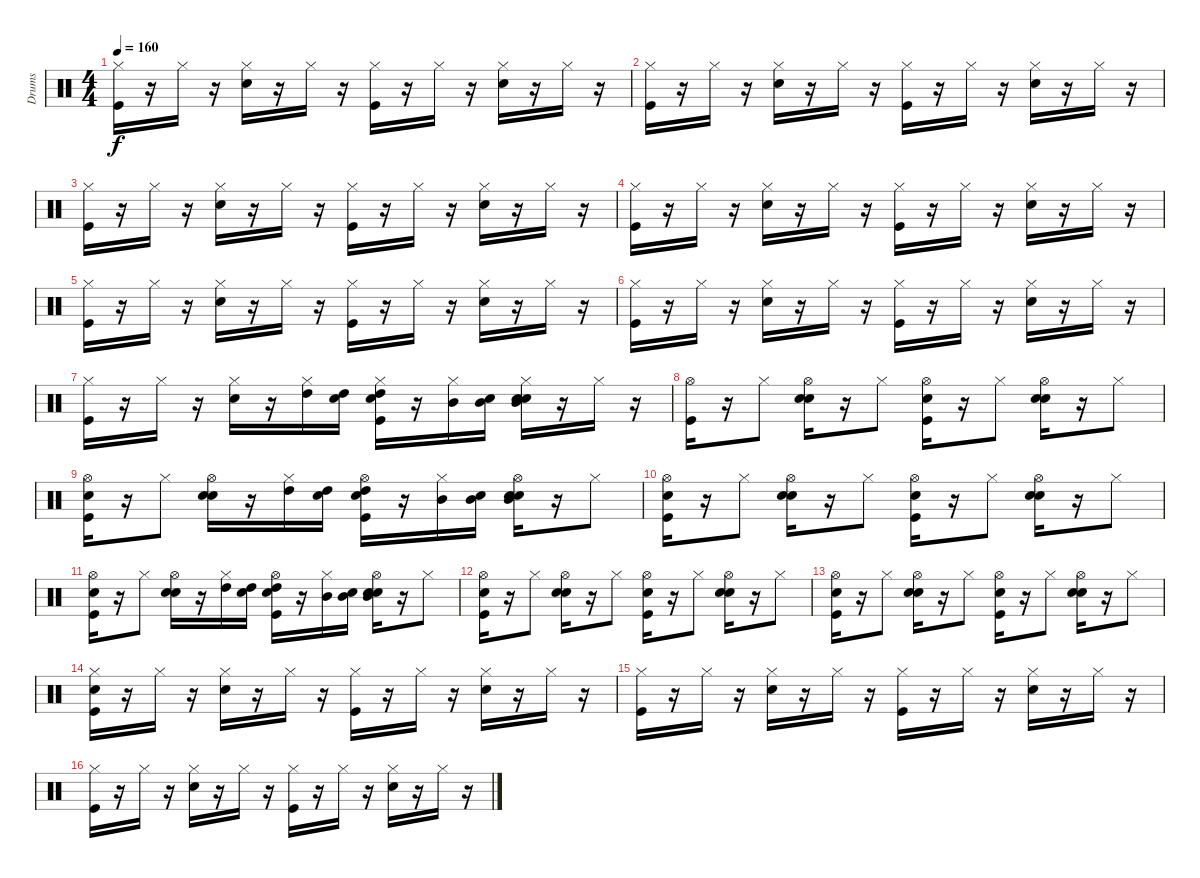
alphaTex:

\track ("Drums               " "Drums     ") {instrument percussion}
\staff {score}
\articulation defaults
\ts (4 4)
\tempo 160
\clef neutral
\ks c
("Kick (hit)" "Hi-Hat (closed)").16{dy f} r.16 "Hi-Hat (closed)".16 r.16 ("Snare (hit) 2" "Hi-Hat (closed)").16 r.16 "Hi-Hat (closed)".16 r.16 ("Kick (hit)" "Hi-Hat (closed)").16 r.16 "Hi-Hat (closed)".16 r.16 ("Snare (hit) 2" "Hi-Hat (closed)").16 r.16 "Hi-Hat (closed)".16 r.16 |
("Kick (hit)" "Hi-Hat (closed)").16 r.16 "Hi-Hat (closed)".16 r.16 ("Snare (hit) 2" "Hi-Hat (closed)").16 r.16 "Hi-Hat (closed)".16 r.16 ("Kick (hit)" "Hi-Hat (closed)").16 r.16 "Hi-Hat (closed)".16 r.16 ("Snare (hit) 2" "Hi-Hat (closed)").16 r.16 "Hi-Hat (closed)".16 r.16 |
("Kick (hit)" "Hi-Hat (closed)").16 r.16 "Hi-Hat (closed)".16 r.16 ("Snare (hit) 2" "Hi-Hat (closed)").16 r.16 "Hi-Hat (closed)".16 r.16 ("Kick (hit)" "Hi-Hat (closed)").16 r.16 "Hi-Hat (closed)".16 r.16 ("Snare (hit) 2" "Hi-Hat (closed)").16 r.16 "Hi-Hat (closed)".16 r.16 |
("Kick (hit)" "Hi-Hat (closed)").16 r.16 "Hi-Hat (closed)".16 r.16 ("Snare (hit) 2" "Hi-Hat (closed)").16 r.16 "Hi-Hat (closed)".16 r.16 ("Kick (hit)" "Hi-Hat (closed)").16 r.16 "Hi-Hat (closed)".16 r.16 ("Snare (hit) 2" "Hi-Hat (closed)").16 r.16 "Hi-Hat (closed)".16 r.16 |
("Kick (hit)" "Hi-Hat (closed)").16 r.16 "Hi-Hat (closed)".16 r.16 ("Snare (hit) 2" "Hi-Hat (closed)").16 r.16 "Hi-Hat (closed)".16 r.16 ("Kick (hit)" "Hi-Hat (closed)").16 r.16 "Hi-Hat (closed)".16 r.16 ("Snare (hit) 2" "Hi-Hat (closed)").16 r.16 "Hi-Hat (closed)".16 r.16 |
("Kick (hit)" "Hi-Hat (closed)").16 r.16 "Hi-Hat (closed)".16 r.16 ("Snare (hit) 2" "Hi-Hat (closed)").16 r.16 "Hi-Hat (closed)".16 r.16 ("Kick (hit)" "Hi-Hat (closed)").16 r.16 "Hi-Hat (closed)".16 r.16 ("Snare (hit) 2" "Hi-Hat (closed)").16 r.16 "Hi-Hat (closed)".16 r.16 |
("Kick (hit)" "Hi-Hat (closed)").16 r.16 "Hi-Hat (closed)".16 r.16 ("Snare (hit) 2" "Hi-Hat (closed)").16 r.16 ("Hi-Hat (closed)" "High Tom (hit)").16 ("Snare (hit)" "High Tom (hit)").16 ("Snare (hit)" "Kick (hit)" "Hi-Hat (closed)" "High Tom (hit)").16 r.16 ("Hi-Hat (closed)" "Mid Tom (hit)").16 ("Snare (hit)" "Mid Tom (hit)").16 ("Snare (hit)" "Snare (hit) 2" "Hi-Hat (closed)" "Mid Tom (hit)").16 r.16 "Hi-Hat (closed)".16 r.16 |
("Kick (hit)" "Hi-Hat (open)").16 r.16 "Hi-Hat (closed)".8 ("Snare (hit)" "Snare (hit) 2" "Hi-Hat (open)").16 r.16 "Hi-Hat (closed)".8 ("Snare (hit)" "Kick (hit)" "Hi-Hat (open)").16 r.16 "Hi-Hat (closed)".8 ("Snare (hit)" "Snare (hit) 2" "Hi-Hat (open)").16 r.16 "Hi-Hat (closed)".8 |
("Snare (hit)" "Kick (hit)" "Hi-Hat (open)").16 r.16 "Hi-Hat (closed)".8 ("Snare (hit)" "Snare (hit) 2" "Hi-Hat (open)").16 r.16 ("High Tom (hit)" "Hi-Hat (closed)").16 ("Snare (hit)" "High Tom (hit)").16 ("Snare (hit)" "Kick (hit)" "High Tom (hit)" "Hi-Hat (open)").16 r.16 ("Mid Tom (hit)" "Hi-Hat (closed)").16 ("Snare (hit)" "Mid Tom (hit)").16 ("Snare (hit)" "Snare (hit) 2" "Mid Tom (hit)" "Hi-Hat (open)").16 r.16 "Hi-Hat (closed)".8 |
("Snare (hit)" "Kick (hit)" "Hi-Hat (open)").16 r.16 "Hi-Hat (closed)".8 ("Snare (hit)" "Snare (hit) 2" "Hi-Hat (open)").16 r.16 "Hi-Hat (closed)".8 ("Snare (hit)" "Kick (hit)" "Hi-Hat (open)").16 r.16 "Hi-Hat (closed)".8 ("Snare (hit)" "Snare (hit) 2" "Hi-Hat (open)").16 r.16 "Hi-Hat (closed)".8 |
("Snare (hit)" "Kick (hit)" "Hi-Hat (open)").16 r.16 "Hi-Hat (closed)".8 ("Snare (hit)" "Snare (hit) 2" "Hi-Hat (open)").16 r.16 ("Hi-Hat (closed)" "High Tom (hit)").16 ("Snare (hit)" "High Tom (hit)").16 ("Snare (hit)" "Kick (hit)" "High Tom (hit)" "Hi-Hat (open)").16 r.16 ("Hi-Hat (closed)" "Mid Tom (hit)").16 ("Snare (hit)" "Mid Tom (hit)").16 ("Snare (hit)" "Snare (hit) 2" "Mid Tom (hit)" "Hi-Hat (open)").16 r.16 "Hi-Hat (closed)".8 |
("Snare (hit)" "Kick (hit)" "Hi-Hat (open)").16 r.16 "Hi-Hat (closed)".8 ("Snare (hit)" "Snare (hit) 2" "Hi-Hat (open)").16 r.16 "Hi-Hat (closed)".8 ("Snare (hit)" "Kick (hit)" "Hi-Hat (open)").16 r.16 "Hi-Hat (closed)".8 ("Snare (hit)" "Snare (hit) 2" "Hi-Hat (open)").16 r.16 "Hi-Hat (closed)".8 |
("Snare (hit)" "Kick (hit)" "Hi-Hat (open)").16 r.16 "Hi-Hat (closed)".8 ("Snare (hit)" "Snare (hit) 2" "Hi-Hat (open)").16 r.16 "Hi-Hat (closed)".8 ("Snare (hit)" "Kick (hit)" "Hi-Hat (open)").16 r.16 "Hi-Hat (closed)".8 ("Snare (hit)" "Snare (hit) 2" "Hi-Hat (open)").16 r.16 "Hi-Hat (closed)".8 |
("Snare (hit)" "Kick (hit)" "Hi-Hat (closed)").16 r.16 "Hi-Hat (closed)".16 r.16 ("Snare (hit) 2" "Hi-Hat (closed)").16 r.16 "Hi-Hat (closed)".16 r.16 ("Kick (hit)" "Hi-Hat (closed)").16 r.16 "Hi-Hat (closed)".16 r.16 ("Snare (hit) 2" "Hi-Hat (closed)").16 r.16 "Hi-Hat (closed)".16 r.16 |
("Kick (hit)" "Hi-Hat (closed)").16 r.16 "Hi-Hat (closed)".16 r.16 ("Snare (hit) 2" "Hi-Hat (closed)").16 r.16 "Hi-Hat (closed)".16 r.16 ("Kick (hit)" "Hi-Hat (closed)").16 r.16 "Hi-Hat (closed)".16 r.16 ("Snare (hit) 2" "Hi-Hat (closed)").16 r.16 "Hi-Hat (closed)".16 r.16 |
("Kick (hit)" "Hi-Hat (closed)").16 r.16 "Hi-Hat (closed)".16 r.16 ("Snare (hit) 2" "Hi-Hat (closed)").16 r.16 "Hi-Hat (closed)".16 r.16 ("Kick (hit)" "Hi-Hat (closed)").16 r.16 "Hi-Hat (closed)".16 r.16 ("Snare (hit) 2" "Hi-Hat (closed)").16 r.16 "Hi-Hat (closed)".16 r.16
